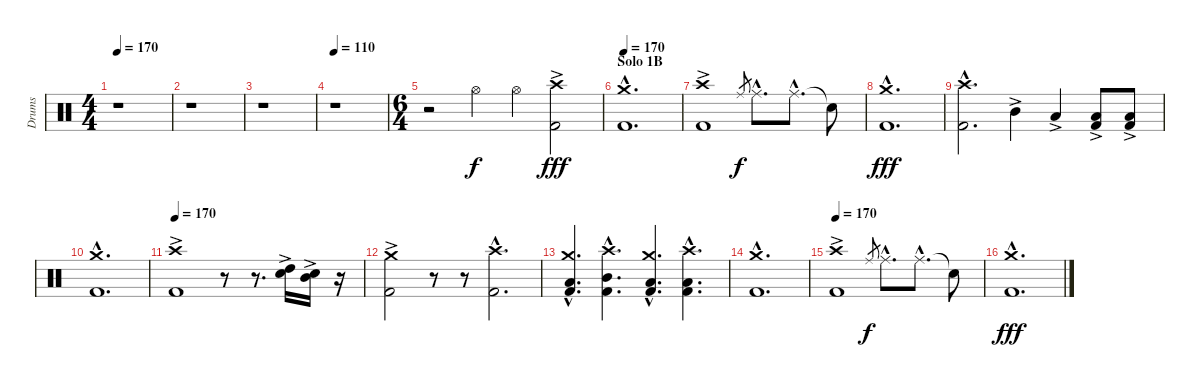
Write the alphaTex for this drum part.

\track ("Drums" "Drums") {instrument percussion}
\staff {score}
\articulation defaults
\ts (4 4)
\tempo 170
\clef neutral
\ks c
r.1{dy fff} |
r.1 |
r.1 |
\tempo 110
r.1 |
\ts (6 4)
r.2 "Hi-Hat (open)".4{dy f} "Hi-Hat (open)".4 ("Crash high (hit)"{ac} "Kick (hit) 2"{ac}).2{dy fff} |
\section ("" "Solo 1B ")
\tempo 170
("Crash medium (hit)"{hac} "Kick (hit) 2"{hac}).1{d} |
("Crash high (hit)"{ac} "Kick (hit) 2"{ac}).1 "Ride (middle)".8{gr dy f} "Ride (middle)"{hac}.8{d} "Ride (middle)"{hac}.8{d} "Snare (hit)"{t}.8 |
("Crash medium (hit)"{hac} "Kick (hit) 2"{hac}).1{d dy fff} |
("Crash high (hit)"{hac} "Kick (hit) 2"{hac}).2{d} "Mid Tom (hit)"{ac}.4 "Low Tom (hit)"{ac}.4 ("Low Floor Tom (hit)"{ac} "Kick (hit) 2"{ac}).8 ("Low Floor Tom (hit)" "Kick (hit) 2"{ac}).8 |
("Crash medium (hit)"{hac} "Kick (hit) 2"{hac}).1{d} |
\tempo 170
("Crash high (hit)"{ac} "Kick (hit) 2"{ac}).1 r.8 r.8{d} ("High Tom (hit)"{ac} "Snare (hit) 2"{ac}).16 ("Mid Tom (hit)"{ac} "Snare (hit) 2"{ac}).16 r.16 |
("Crash medium (hit)"{ac} "Kick (hit) 2").2 r.8 r.8 ("Crash high (hit)"{hac} "Kick (hit) 2"{hac}).2{d} |
("Crash medium (hit)"{hac} "Low Tom (hit)"{hac} "Kick (hit) 2"{hac}).4{d} ("Crash high (hit)"{hac} "Mid Tom (hit)"{hac} "Kick (hit) 2"{hac}).4{d} ("Crash medium (hit)"{hac} "Low Tom (hit)"{hac} "Kick (hit) 2"{hac}).4{d} ("Crash high (hit)"{hac} "Low Floor Tom (hit)"{hac} "Kick (hit) 2"{hac}).4{d} |
("Crash medium (hit)"{hac} "Kick (hit) 2"{hac}).1{d} |
\tempo 170
("Crash high (hit)"{ac} "Kick (hit) 2"{ac}).1 "Ride (middle)".8{gr dy f} "Ride (middle)"{hac}.8{d} "Ride (middle)"{hac}.8{d} "Snare (hit)"{t}.8 |
("Crash medium (hit)"{hac} "Kick (hit) 2"{hac}).1{d dy fff}
